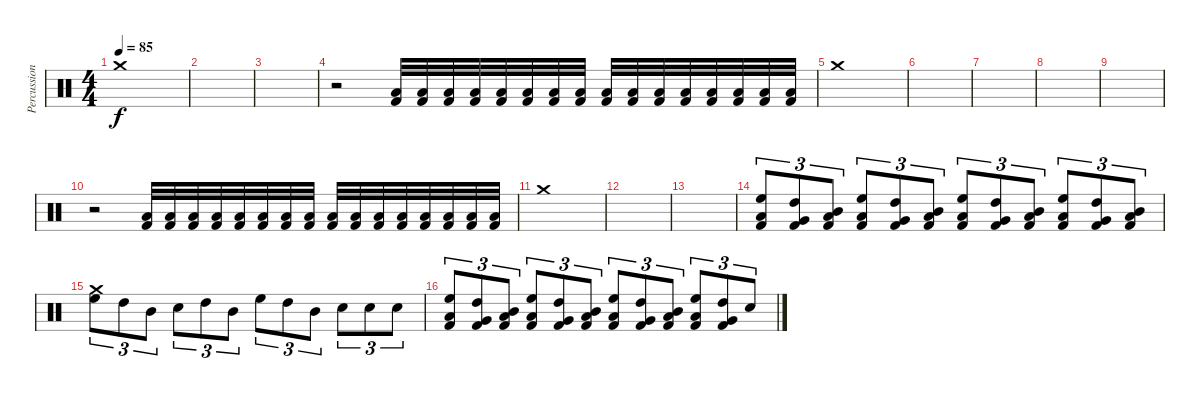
\track ("Percussion" "Percussion") {instrument percussion}
\staff {score}
\articulation defaults
\ts (4 4)
\tempo 85
\clef neutral
\ks c "Crash medium (hit)".1{dy f}
|
|
|
r.2 ("Low Floor Tom (hit)" "Kick (hit) 2").32 ("Low Floor Tom (hit)" "Kick (hit) 2").32 ("Low Floor Tom (hit)" "Kick (hit) 2").32 ("Low Floor Tom (hit)" "Kick (hit) 2").32 ("Low Floor Tom (hit)" "Kick (hit) 2").32 ("Low Floor Tom (hit)" "Kick (hit) 2").32 ("Low Floor Tom (hit)" "Kick (hit) 2").32 ("Low Floor Tom (hit)" "Kick (hit) 2").32 ("Low Floor Tom (hit)" "Kick (hit) 2").32 ("Low Floor Tom (hit)" "Kick (hit) 2").32 ("Low Floor Tom (hit)" "Kick (hit) 2").32 ("Low Floor Tom (hit)" "Kick (hit) 2").32 ("Low Floor Tom (hit)" "Kick (hit) 2").32 ("Low Floor Tom (hit)" "Kick (hit) 2").32 ("Low Floor Tom (hit)" "Kick (hit) 2").32 ("Low Floor Tom (hit)" "Kick (hit) 2").32 |
"Crash medium (hit)".1 |
|
|
|
|
r.2 ("Low Floor Tom (hit)" "Kick (hit) 2").32 ("Low Floor Tom (hit)" "Kick (hit) 2").32 ("Low Floor Tom (hit)" "Kick (hit) 2").32 ("Low Floor Tom (hit)" "Kick (hit) 2").32 ("Low Floor Tom (hit)" "Kick (hit) 2").32 ("Low Floor Tom (hit)" "Kick (hit) 2").32 ("Low Floor Tom (hit)" "Kick (hit) 2").32 ("Low Floor Tom (hit)" "Kick (hit) 2").32 ("Low Floor Tom (hit)" "Kick (hit) 2").32 ("Low Floor Tom (hit)" "Kick (hit) 2").32 ("Low Floor Tom (hit)" "Kick (hit) 2").32 ("Low Floor Tom (hit)" "Kick (hit) 2").32 ("Low Floor Tom (hit)" "Kick (hit) 2").32 ("Low Floor Tom (hit)" "Kick (hit) 2").32 ("Low Floor Tom (hit)" "Kick (hit) 2").32 ("Low Floor Tom (hit)" "Kick (hit) 2").32 |
"Crash medium (hit)".1 |
|
|
("High Floor Tom (hit)" "Low Tom (hit)" "Kick (hit) 2").8{tu (3 2) volume 13} ("High Tom (hit)" "Very Low Tom (hit)" "Kick (hit) 2").8{tu (3 2)} ("Mid Tom (hit)" "Low Floor Tom (hit)" "Kick (hit) 2").8{tu (3 2)} ("High Floor Tom (hit)" "Low Tom (hit)" "Kick (hit) 2").8{tu (3 2)} ("High Tom (hit)" "Very Low Tom (hit)" "Kick (hit) 2").8{tu (3 2)} ("Mid Tom (hit)" "Low Floor Tom (hit)" "Kick (hit) 2").8{tu (3 2)} ("High Floor Tom (hit)" "Low Tom (hit)" "Kick (hit) 2").8{tu (3 2)} ("High Tom (hit)" "Very Low Tom (hit)" "Kick (hit) 2").8{tu (3 2)} ("Mid Tom (hit)" "Low Floor Tom (hit)" "Kick (hit) 2").8{tu (3 2)} ("High Floor Tom (hit)" "Low Tom (hit)" "Kick (hit) 2").8{tu (3 2)} ("High Tom (hit)" "Very Low Tom (hit)" "Kick (hit) 2").8{tu (3 2)} ("Mid Tom (hit)" "Low Floor Tom (hit)" "Kick (hit) 2").8{tu (3 2)} |
("Crash medium (hit)" "High Floor Tom (hit)").8{tu (3 2)} "High Tom (hit)".8{tu (3 2)} "Mid Tom (hit)".8{tu (3 2)} "Electric Snare (hit)".8{tu (3 2)} "High Tom (hit)".8{tu (3 2)} "Mid Tom (hit)".8{tu (3 2)} "High Floor Tom (hit)".8{tu (3 2)} "High Tom (hit)".8{tu (3 2)} "Mid Tom (hit)".8{tu (3 2)} "Electric Snare (hit)".8{tu (3 2)} "Electric Snare (hit)".8{tu (3 2)} "Electric Snare (hit)".8{tu (3 2)} |
("High Floor Tom (hit)" "Low Tom (hit)" "Kick (hit) 2").8{tu (3 2)} ("High Tom (hit)" "Very Low Tom (hit)" "Kick (hit) 2").8{tu (3 2)} ("Mid Tom (hit)" "Low Floor Tom (hit)" "Kick (hit) 2").8{tu (3 2)} ("High Floor Tom (hit)" "Low Tom (hit)" "Kick (hit) 2").8{tu (3 2)} ("High Tom (hit)" "Very Low Tom (hit)" "Kick (hit) 2").8{tu (3 2)} ("Mid Tom (hit)" "Low Floor Tom (hit)" "Kick (hit) 2").8{tu (3 2)} ("High Floor Tom (hit)" "Low Tom (hit)" "Kick (hit) 2").8{tu (3 2)} ("High Tom (hit)" "Very Low Tom (hit)" "Kick (hit) 2").8{tu (3 2)} ("Mid Tom (hit)" "Low Floor Tom (hit)" "Kick (hit) 2").8{tu (3 2)} ("High Floor Tom (hit)" "Low Tom (hit)" "Kick (hit) 2").8{tu (3 2)} ("High Tom (hit)" "Very Low Tom (hit)" "Kick (hit) 2").8{tu (3 2)} "Electric Snare (hit)".8{tu (3 2)}
